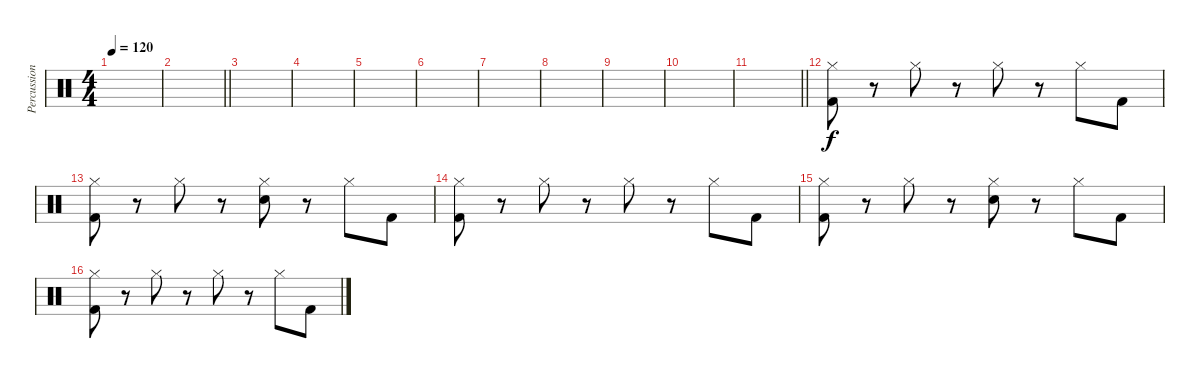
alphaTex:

\track ("Percussion" "Percussion") {instrument percussion}
\staff {score}
\articulation defaults
\ts (4 4)
\tempo 120
\clef neutral
\ks c
|
\barLineRight lightlight
|
|
|
|
|
|
|
|
|
\barLineRight lightlight
|
("Hi-Hat (closed)" "Kick (hit) 2").8 r.8 "Hi-Hat (closed)".8 r.8 "Hi-Hat (closed)".8 r.8 "Hi-Hat (closed)".8 "Kick (hit) 2".8 |
("Hi-Hat (closed)" "Kick (hit) 2").8 r.8 "Hi-Hat (closed)".8 r.8 ("Hi-Hat (closed)" "Snare (hit) 2").8 r.8 "Hi-Hat (closed)".8 "Kick (hit) 2".8 |
("Hi-Hat (closed)" "Kick (hit) 2").8 r.8 "Hi-Hat (closed)".8 r.8 "Hi-Hat (closed)".8 r.8 "Hi-Hat (closed)".8 "Kick (hit) 2".8 |
("Hi-Hat (closed)" "Kick (hit) 2").8 r.8 "Hi-Hat (closed)".8 r.8 ("Hi-Hat (closed)" "Snare (hit) 2").8 r.8 "Hi-Hat (closed)".8 "Kick (hit) 2".8 |
("Hi-Hat (closed)" "Kick (hit) 2").8 r.8 "Hi-Hat (closed)".8 r.8 "Hi-Hat (closed)".8 r.8 "Hi-Hat (closed)".8 "Kick (hit) 2".8
